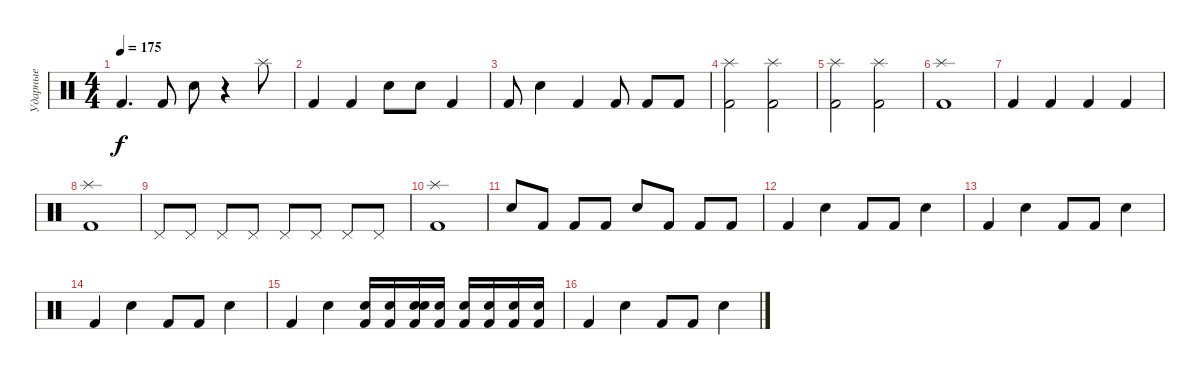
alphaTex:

\track ("Ударные" "Ударные") {instrument percussion}
\staff {score}
\articulation defaults
\ts (4 4)
\tempo 175
\clef neutral
\ks c "Kick (hit) 2".4{d dy f} "Kick (hit) 2".8 "Electric Snare (hit)".8
r.4 "Splash (hit)".8 |
"Kick (hit) 2".4 "Kick (hit) 2".4 "Electric Snare (hit)".8 "Electric Snare (hit)".8 "Kick (hit) 2".4 |
"Kick (hit) 2".8 "Electric Snare (hit)".4 "Kick (hit) 2".4 "Kick (hit) 2".8 "Kick (hit) 2".8 "Kick (hit) 2".8 |
("Splash (hit)" "Kick (hit) 2").2 ("Splash (hit)" "Kick (hit) 2").2 |
("Splash (hit)" "Kick (hit) 2").2 ("Splash (hit)" "Kick (hit) 2").2 |
("Splash (hit)" "Kick (hit) 2").1 |
"Kick (hit) 2".4 "Kick (hit) 2".4 "Kick (hit) 2".4 "Kick (hit) 2".4 |
("Splash (hit)" "Kick (hit) 2").1 |
"Pedal Hi-Hat (hit)".8 "Pedal Hi-Hat (hit)".8 "Pedal Hi-Hat (hit)".8 "Pedal Hi-Hat (hit)".8 "Pedal Hi-Hat (hit)".8 "Pedal Hi-Hat (hit)".8 "Pedal Hi-Hat (hit)".8 "Pedal Hi-Hat (hit)".8 |
("Splash (hit)" "Kick (hit) 2").1 |
"Electric Snare (hit)".8 "Kick (hit) 2".8 "Kick (hit) 2".8 "Kick (hit) 2".8 "Electric Snare (hit)".8 "Kick (hit) 2".8 "Kick (hit) 2".8 "Kick (hit) 2".8 |
"Kick (hit) 2".4 "Electric Snare (hit)".4 "Kick (hit) 2".8 "Kick (hit) 2".8 "Electric Snare (hit)".4 |
"Kick (hit) 2".4 "Electric Snare (hit)".4 "Kick (hit) 2".8 "Kick (hit) 2".8 "Electric Snare (hit)".4 |
"Kick (hit) 2".4 "Electric Snare (hit)".4 "Kick (hit) 2".8 "Kick (hit) 2".8 "Electric Snare (hit)".4 |
"Kick (hit) 2".4 "Electric Snare (hit)".4 ("Electric Snare (hit)" "Kick (hit) 2").16 ("Electric Snare (hit)" "Kick (hit) 2").16 ("Snare (hit) 2" "Electric Snare (hit)" "Kick (hit) 2").16 ("Electric Snare (hit)" "Kick (hit) 2").16 ("Electric Snare (hit)" "Kick (hit) 2").16 ("Electric Snare (hit)" "Kick (hit) 2").16 ("Electric Snare (hit)" "Kick (hit) 2").16 ("Electric Snare (hit)" "Kick (hit) 2").16 |
"Kick (hit) 2".4 "Electric Snare (hit)".4 "Kick (hit) 2".8 "Kick (hit) 2".8 "Electric Snare (hit)".4
